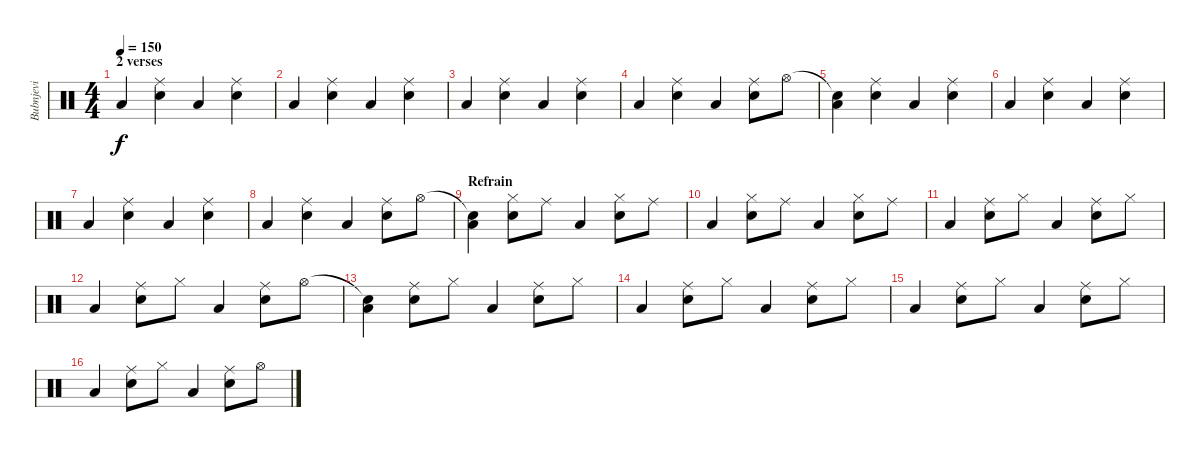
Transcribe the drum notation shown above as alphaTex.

\track ("Bubnjevi" "Bubnjevi") {instrument percussion}
\staff {score}
\articulation defaults
\ts (4 4)
\section ("" "2 verses")
\tempo 150
\clef neutral
\ks c "Low Tom (hit)".4{dy f}
("Ride (middle)" "Snare (hit) 2").4 "Low Tom (hit)".4 ("Ride (middle)" "Snare (hit) 2").4 |
"Low Tom (hit)".4 ("Ride (middle)" "Snare (hit) 2").4 "Low Tom (hit)".4 ("Ride (middle)" "Snare (hit) 2").4 |
"Low Tom (hit)".4 ("Ride (middle)" "Snare (hit) 2").4 "Low Tom (hit)".4 ("Ride (middle)" "Snare (hit) 2").4 |
"Low Tom (hit)".4 ("Ride (middle)" "Snare (hit) 2").4 "Low Tom (hit)".4 ("Ride (middle)" "Snare (hit) 2").8 "Hi-Hat (open)".8 |
("Snare (hit)"{t} "Low Tom (hit)").4 ("Ride (middle)" "Snare (hit) 2").4 "Low Tom (hit)".4 ("Ride (middle)" "Snare (hit) 2").4 |
"Low Tom (hit)".4 ("Ride (middle)" "Snare (hit) 2").4 "Low Tom (hit)".4 ("Ride (middle)" "Snare (hit) 2").4 |
"Low Tom (hit)".4 ("Ride (middle)" "Snare (hit) 2").4 "Low Tom (hit)".4 ("Ride (middle)" "Snare (hit) 2").4 |
"Low Tom (hit)".4 ("Ride (middle)" "Snare (hit) 2").4 "Low Tom (hit)".4 ("Ride (middle)" "Snare (hit) 2").8 "Hi-Hat (open)".8 |
\section ("" "Refrain")
("Snare (hit)"{t} "Low Tom (hit)").4 ("Hi-Hat (closed)" "Snare (hit) 2").8 "Ride (middle)".8 "Low Tom (hit)".4 ("Hi-Hat (closed)" "Snare (hit) 2").8 "Ride (middle)".8 |
"Low Tom (hit)".4 ("Hi-Hat (closed)" "Snare (hit) 2").8 "Ride (middle)".8 "Low Tom (hit)".4 ("Hi-Hat (closed)" "Snare (hit) 2").8 "Ride (middle)".8 |
"Low Tom (hit)".4 ("Ride (middle)" "Snare (hit) 2").8 "Hi-Hat (closed)".8 "Low Tom (hit)".4 ("Ride (middle)" "Snare (hit) 2").8 "Hi-Hat (closed)".8 |
"Low Tom (hit)".4 ("Ride (middle)" "Snare (hit) 2").8 "Hi-Hat (closed)".8 "Low Tom (hit)".4 ("Ride (middle)" "Snare (hit) 2").8 "Hi-Hat (open)".8 |
("Snare (hit)"{t} "Low Tom (hit)").4 ("Ride (middle)" "Snare (hit) 2").8 "Hi-Hat (closed)".8 "Low Tom (hit)".4 ("Ride (middle)" "Snare (hit) 2").8 "Hi-Hat (closed)".8 |
"Low Tom (hit)".4 ("Ride (middle)" "Snare (hit) 2").8 "Hi-Hat (closed)".8 "Low Tom (hit)".4 ("Ride (middle)" "Snare (hit) 2").8 "Hi-Hat (closed)".8 |
"Low Tom (hit)".4 ("Ride (middle)" "Snare (hit) 2").8 "Hi-Hat (closed)".8 "Low Tom (hit)".4 ("Ride (middle)" "Snare (hit) 2").8 "Hi-Hat (closed)".8 |
"Low Tom (hit)".4 ("Ride (middle)" "Snare (hit) 2").8 "Hi-Hat (closed)".8 "Low Tom (hit)".4 ("Ride (middle)" "Snare (hit) 2").8 "Hi-Hat (open)".8
